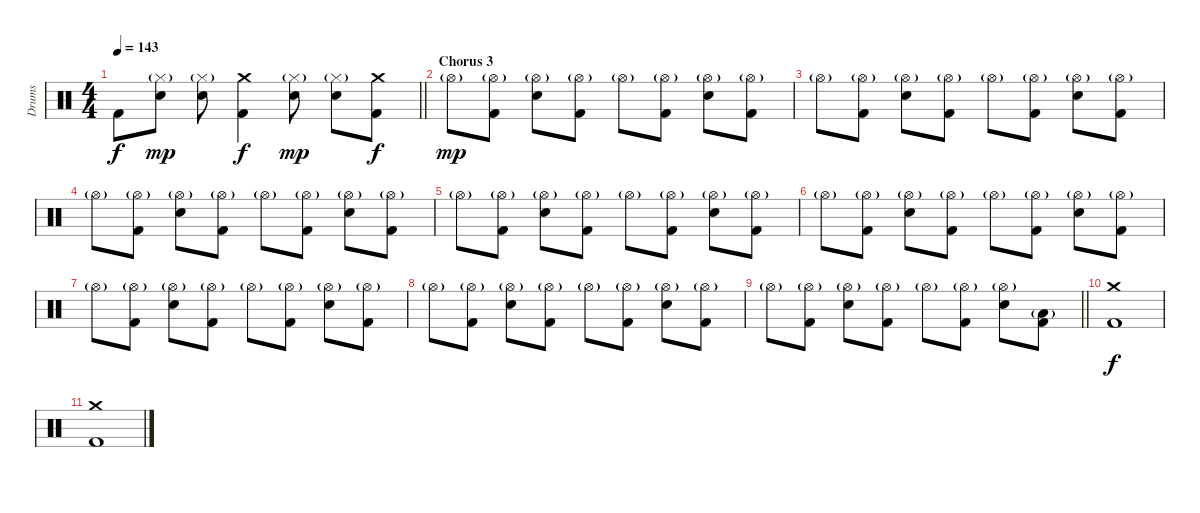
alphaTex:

\track ("Drums" "Drums") {instrument percussion}
\staff {score}
\articulation defaults
\ts (4 4)
\tempo 143
\clef neutral
\barLineRight lightlight
\ks c "Kick (hit) 2"{t}.8{dy f}
("Hi-Hat (closed)"{g} "Electric Snare (hit)").8{dy mp} ("Hi-Hat (closed)"{g} "Electric Snare (hit)").8 ("Crash medium (hit)" "Kick (hit) 2").4{dy f} ("Hi-Hat (closed)"{g} "Electric Snare (hit)").8{dy mp} ("Hi-Hat (closed)"{g} "Electric Snare (hit)").8 ("Crash medium (hit)" "Kick (hit) 2").8{dy f} |
\section ("" "Chorus 3")
"Hi-Hat (open)"{g}.8{dy mp} ("Hi-Hat (open)"{g} "Kick (hit) 2").8 ("Hi-Hat (open)"{g} "Electric Snare (hit)").8 ("Hi-Hat (open)"{g} "Kick (hit) 2").8 "Hi-Hat (open)"{g}.8 ("Hi-Hat (open)"{g} "Kick (hit) 2").8 ("Hi-Hat (open)"{g} "Electric Snare (hit)").8 ("Hi-Hat (open)"{g} "Kick (hit) 2").8 |
"Hi-Hat (open)"{g}.8 ("Hi-Hat (open)"{g} "Kick (hit) 2").8 ("Hi-Hat (open)"{g} "Electric Snare (hit)").8 ("Hi-Hat (open)"{g} "Kick (hit) 2").8 "Hi-Hat (open)"{g}.8 ("Hi-Hat (open)"{g} "Kick (hit) 2").8 ("Hi-Hat (open)"{g} "Electric Snare (hit)").8 ("Hi-Hat (open)"{g} "Kick (hit) 2").8 |
"Hi-Hat (open)"{g}.8 ("Hi-Hat (open)"{g} "Kick (hit) 2").8 ("Hi-Hat (open)"{g} "Electric Snare (hit)").8 ("Hi-Hat (open)"{g} "Kick (hit) 2").8 "Hi-Hat (open)"{g}.8 ("Hi-Hat (open)"{g} "Kick (hit) 2").8 ("Hi-Hat (open)"{g} "Electric Snare (hit)").8 ("Hi-Hat (open)"{g} "Kick (hit) 2").8 |
"Hi-Hat (open)"{g}.8 ("Hi-Hat (open)"{g} "Kick (hit) 2").8 ("Hi-Hat (open)"{g} "Electric Snare (hit)").8 ("Hi-Hat (open)"{g} "Kick (hit) 2").8 "Hi-Hat (open)"{g}.8 ("Hi-Hat (open)"{g} "Kick (hit) 2").8 ("Hi-Hat (open)"{g} "Electric Snare (hit)").8 ("Hi-Hat (open)"{g} "Kick (hit) 2").8 |
"Hi-Hat (open)"{g}.8 ("Hi-Hat (open)"{g} "Kick (hit) 2").8 ("Hi-Hat (open)"{g} "Electric Snare (hit)").8 ("Hi-Hat (open)"{g} "Kick (hit) 2").8 "Hi-Hat (open)"{g}.8 ("Hi-Hat (open)"{g} "Kick (hit) 2").8 ("Hi-Hat (open)"{g} "Electric Snare (hit)").8 ("Hi-Hat (open)"{g} "Kick (hit) 2").8 |
"Hi-Hat (open)"{g}.8 ("Hi-Hat (open)"{g} "Kick (hit) 2").8 ("Hi-Hat (open)"{g} "Electric Snare (hit)").8 ("Hi-Hat (open)"{g} "Kick (hit) 2").8 "Hi-Hat (open)"{g}.8 ("Hi-Hat (open)"{g} "Kick (hit) 2").8 ("Hi-Hat (open)"{g} "Electric Snare (hit)").8 ("Hi-Hat (open)"{g} "Kick (hit) 2").8 |
"Hi-Hat (open)"{g}.8 ("Hi-Hat (open)"{g} "Kick (hit) 2").8 ("Hi-Hat (open)"{g} "Electric Snare (hit)").8 ("Hi-Hat (open)"{g} "Kick (hit) 2").8 "Hi-Hat (open)"{g}.8 ("Hi-Hat (open)"{g} "Kick (hit) 2").8 ("Hi-Hat (open)"{g} "Electric Snare (hit)").8 ("Hi-Hat (open)"{g} "Kick (hit) 2").8 |
\barLineRight lightlight "Hi-Hat (open)"{g}.8
("Hi-Hat (open)"{g} "Kick (hit) 2").8 ("Hi-Hat (open)"{g} "Electric Snare (hit)").8 ("Hi-Hat (open)"{g} "Kick (hit) 2").8 "Hi-Hat (open)"{g}.8 ("Hi-Hat (open)"{g} "Kick (hit) 2").8 ("Hi-Hat (open)"{g} "Electric Snare (hit)").8 ("Low Tom (hit)"{g} "Kick (hit) 2").8 |
("Crash medium (hit)" "Kick (hit) 2").1{dy f} |
("Crash medium (hit)" "Kick (hit) 2").1
